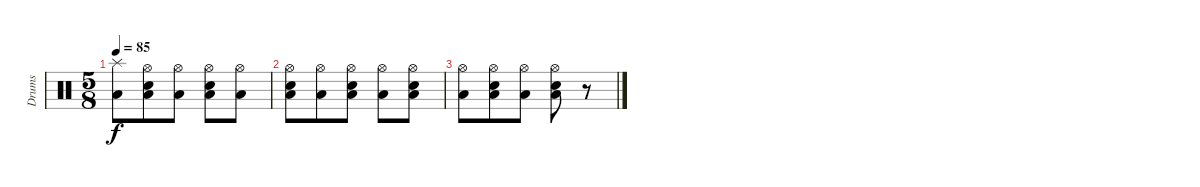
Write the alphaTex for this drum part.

\track ("Drums" "Drums") {instrument percussion}
\staff {score}
\articulation defaults
\ts (5 8)
\tempo 85
\clef neutral
\ks c
("Splash (hit)" "Low Floor Tom (hit)").8{dy f} ("Hi-Hat (open)" "Electric Snare (hit)" "Low Floor Tom (hit)").8 ("Hi-Hat (open)" "Low Floor Tom (hit)").8 ("Hi-Hat (open)" "Electric Snare (hit)" "Low Floor Tom (hit)").8 ("Hi-Hat (open)" "Low Floor Tom (hit)").8 |
("Hi-Hat (open)" "Electric Snare (hit)" "Low Floor Tom (hit)").8 ("Hi-Hat (open)" "Low Floor Tom (hit)").8 ("Hi-Hat (open)" "Electric Snare (hit)" "Low Floor Tom (hit)").8 ("Hi-Hat (open)" "Low Floor Tom (hit)").8 ("Hi-Hat (open)" "Electric Snare (hit)" "Low Floor Tom (hit)").8 |
("Hi-Hat (open)" "Low Floor Tom (hit)").8 ("Hi-Hat (open)" "Electric Snare (hit)" "Low Floor Tom (hit)").8 ("Hi-Hat (open)" "Low Floor Tom (hit)").8 ("Hi-Hat (open)" "Electric Snare (hit)" "Low Floor Tom (hit)").8 r.8
